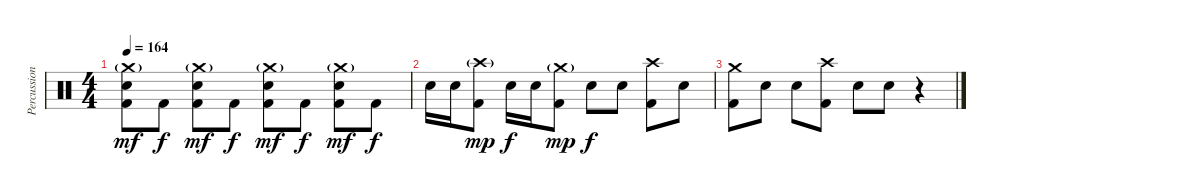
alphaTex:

\track ("Percussion - Michael Ambrose" "Percussion") {instrument percussion}
\staff {score}
\articulation defaults
\ts (4 4)
\tempo 164
\clef neutral
\ks c
("Crash medium (hit)"{g} "Electric Snare (hit)" "Kick (hit) 2").8{dy mf} "Kick (hit) 2".8{dy f} ("Crash medium (hit)"{g} "Electric Snare (hit)" "Kick (hit) 2").8{dy mf} "Kick (hit) 2".8{dy f} ("Crash medium (hit)"{g} "Electric Snare (hit)" "Kick (hit) 2").8{dy mf} "Kick (hit) 2".8{dy f} ("Crash medium (hit)"{g} "Electric Snare (hit)" "Kick (hit) 2").8{dy mf} "Kick (hit) 2".8{dy f} |
"Electric Snare (hit)".16 "Electric Snare (hit)".16 ("Crash high (hit)"{g} "Kick (hit) 2").8{dy mp} "Electric Snare (hit)".16{dy f} "Electric Snare (hit)".16 ("Crash medium (hit)"{g} "Kick (hit) 2").8{dy mp} "Electric Snare (hit)".8{dy f} "Electric Snare (hit)".8 ("Crash high (hit)" "Kick (hit) 2").8 "Electric Snare (hit)".8 |
("Crash medium (hit)" "Kick (hit) 2").8 "Electric Snare (hit)".8 "Electric Snare (hit)".8 ("Crash high (hit)" "Kick (hit) 2").8 "Electric Snare (hit)".8 "Electric Snare (hit)".8 r.4
